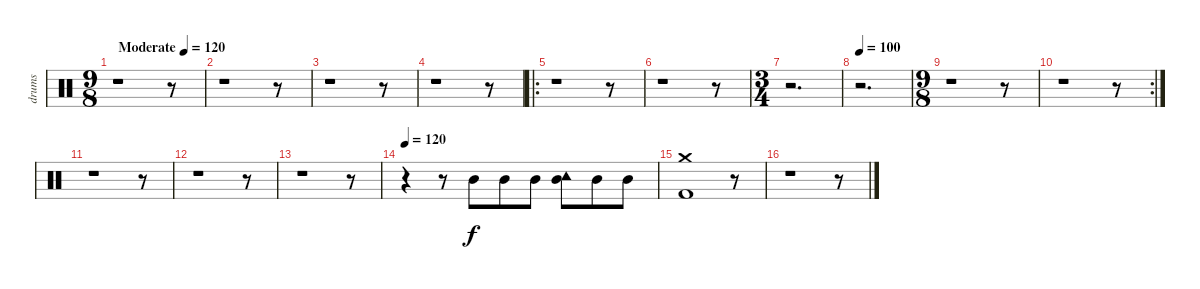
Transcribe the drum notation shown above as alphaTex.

\track ("drums" "drums") {instrument percussion}
\staff {score}
\articulation defaults
\ts (9 8)
\tempo (120 "Moderate")
\clef neutral
\ks c
r.1{dy f} r.8 |
r.1 r.8 |
r.1 r.8 |
r.1 r.8 |
\ro
r.1 r.8 |
r.1 r.8 |
\ts (3 4)
r.2{d} |
\tempo 100
r.2{d} |
\ts (9 8)
r.1 r.8 |
\rc 2
r.1 r.8 |
r.1 r.8 |
r.1 r.8 |
r.1 r.8 |
\tempo 120
r.4 r.8 "Mid Tom (hit)".8 "Mid Tom (hit)".8 "Mid Tom (hit)".8 ("Tambourine (hit)" "Mid Tom (hit)").8 "Mid Tom (hit)".8 "Mid Tom (hit)".8 |
("Kick (hit) 2" "Crash medium (hit)").1 r.8 |
r.1 r.8
